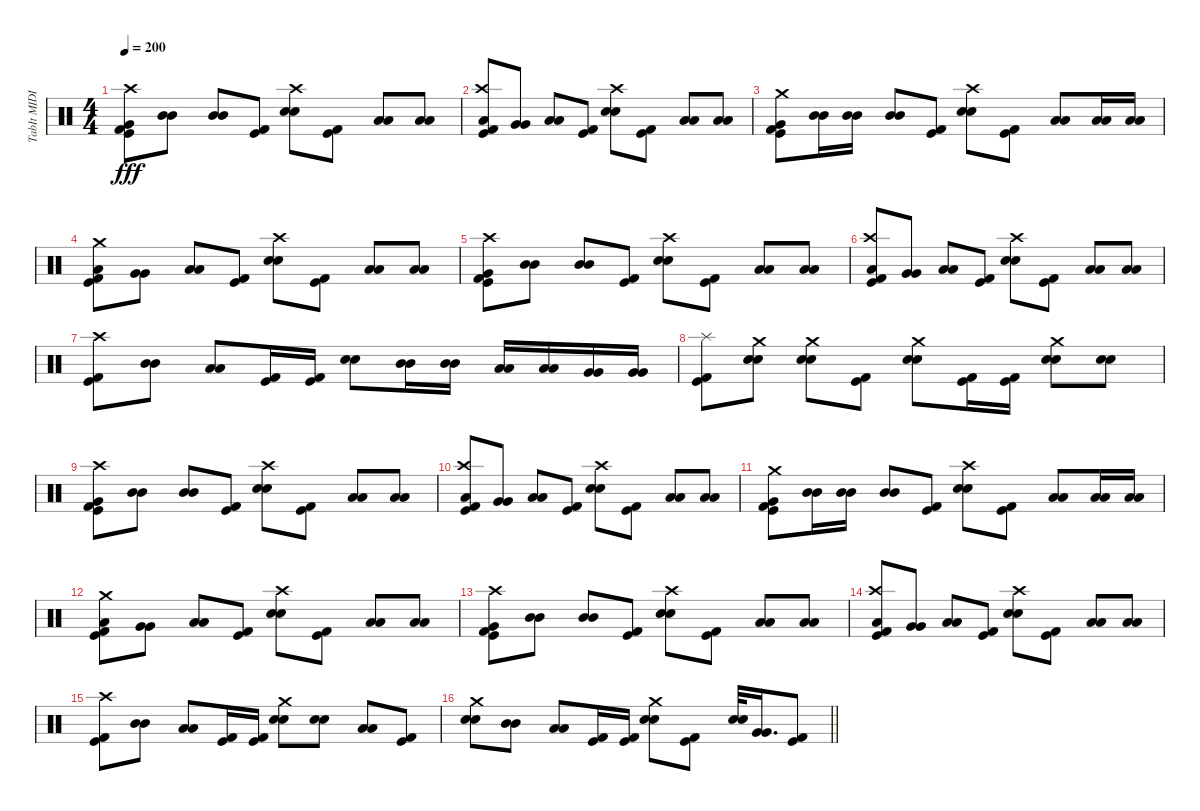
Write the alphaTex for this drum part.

\track ("TabIt MIDI - Track 4" "TabIt MIDI") {instrument percussion}
\staff {score}
\articulation defaults
\ts (4 4)
\tempo 200
\clef neutral
\ks c
("Kick (hit)" "Kick (hit) 2" "Very Low Tom (hit)" "Crash high (hit)").8{dy fff} ("Mid Tom (hit)" "Mid Tom (hit)").8 ("Mid Tom (hit)" "Mid Tom (hit)").8 ("Kick (hit)" "Kick (hit) 2").8 ("Electric Snare (hit)" "Electric Snare (hit)" "Crash high (hit)").8 ("Kick (hit)" "Kick (hit) 2").8 ("Low Tom (hit)" "Low Tom (hit)").8 ("Low Tom (hit)" "Low Tom (hit)").8 |
("Kick (hit)" "Kick (hit) 2" "Low Floor Tom (hit)" "Crash high (hit)").8 ("Very Low Tom (hit)" "Very Low Tom (hit)").8 ("Low Floor Tom (hit)" "Low Floor Tom (hit)").8 ("Kick (hit)" "Kick (hit) 2").8 ("Electric Snare (hit)" "Electric Snare (hit)" "Crash high (hit)").8 ("Kick (hit)" "Kick (hit) 2").8 ("Low Tom (hit)" "Low Tom (hit)").8 ("Low Tom (hit)" "Low Tom (hit)").8 |
("Kick (hit)" "Kick (hit) 2" "Very Low Tom (hit)" "Crash medium (hit)").8 ("Mid Tom (hit)" "Mid Tom (hit)").16 ("Mid Tom (hit)" "Mid Tom (hit)").16 ("Mid Tom (hit)" "Mid Tom (hit)").8 ("Kick (hit)" "Kick (hit) 2").8 ("Electric Snare (hit)" "Electric Snare (hit)" "Crash high (hit)").8 ("Kick (hit)" "Kick (hit) 2").8 ("Low Tom (hit)" "Low Tom (hit)").8 ("Low Tom (hit)" "Low Tom (hit)").16 ("Low Tom (hit)" "Low Tom (hit)").16 |
("Kick (hit)" "Kick (hit) 2" "Low Floor Tom (hit)" "Crash medium (hit)").8 ("Very Low Tom (hit)" "Very Low Tom (hit)").8 ("Low Floor Tom (hit)" "Low Floor Tom (hit)").8 ("Kick (hit)" "Kick (hit) 2").8 ("Electric Snare (hit)" "Electric Snare (hit)" "Crash high (hit)").8 ("Kick (hit)" "Kick (hit) 2").8 ("Low Tom (hit)" "Low Tom (hit)").8 ("Low Tom (hit)" "Low Tom (hit)").8 |
("Kick (hit)" "Kick (hit) 2" "Very Low Tom (hit)" "Crash high (hit)").8 ("Mid Tom (hit)" "Mid Tom (hit)").8 ("Mid Tom (hit)" "Mid Tom (hit)").8 ("Kick (hit)" "Kick (hit) 2").8 ("Electric Snare (hit)" "Electric Snare (hit)" "Crash high (hit)").8 ("Kick (hit)" "Kick (hit) 2").8 ("Low Tom (hit)" "Low Tom (hit)").8 ("Low Tom (hit)" "Low Tom (hit)").8 |
("Kick (hit)" "Kick (hit) 2" "Low Floor Tom (hit)" "Crash high (hit)").8 ("Very Low Tom (hit)" "Very Low Tom (hit)").8 ("Low Floor Tom (hit)" "Low Floor Tom (hit)").8 ("Kick (hit)" "Kick (hit) 2").8 ("Electric Snare (hit)" "Electric Snare (hit)" "Crash high (hit)").8 ("Kick (hit)" "Kick (hit) 2").8 ("Low Tom (hit)" "Low Tom (hit)").8 ("Low Tom (hit)" "Low Tom (hit)").8 |
("Kick (hit)" "Kick (hit) 2" "Crash high (hit)").8 ("Mid Tom (hit)" "Mid Tom (hit)").8 ("Low Tom (hit)" "Low Tom (hit)").8 ("Kick (hit)" "Kick (hit) 2").16 ("Kick (hit)" "Kick (hit) 2").16 ("Electric Snare (hit)" "Electric Snare (hit)").8 ("Mid Tom (hit)" "Mid Tom (hit)").16 ("Mid Tom (hit)" "Mid Tom (hit)").16 ("Low Tom (hit)" "Low Tom (hit)").16 ("Low Tom (hit)" "Low Tom (hit)").16 ("Very Low Tom (hit)" "Very Low Tom (hit)").16 ("Very Low Tom (hit)" "Very Low Tom (hit)").16 |
("Kick (hit)" "Kick (hit) 2" "Splash (hit)").8 ("Electric Snare (hit)" "Electric Snare (hit)" "Crash medium (hit)").8 ("Electric Snare (hit)" "Electric Snare (hit)" "Crash medium (hit)").8 ("Kick (hit)" "Kick (hit) 2").8 ("Electric Snare (hit)" "Electric Snare (hit)" "Crash medium (hit)").8 ("Kick (hit)" "Kick (hit) 2").16 ("Kick (hit)" "Kick (hit) 2").16 ("Electric Snare (hit)" "Electric Snare (hit)" "Crash medium (hit)").8 ("Electric Snare (hit)" "Electric Snare (hit)").8 |
("Kick (hit)" "Kick (hit) 2" "Very Low Tom (hit)" "Crash high (hit)").8 ("Mid Tom (hit)" "Mid Tom (hit)").8 ("Mid Tom (hit)" "Mid Tom (hit)").8 ("Kick (hit)" "Kick (hit) 2").8 ("Electric Snare (hit)" "Electric Snare (hit)" "Crash high (hit)").8 ("Kick (hit)" "Kick (hit) 2").8 ("Low Tom (hit)" "Low Tom (hit)").8 ("Low Tom (hit)" "Low Tom (hit)").8 |
("Kick (hit)" "Kick (hit) 2" "Low Floor Tom (hit)" "Crash high (hit)").8 ("Very Low Tom (hit)" "Very Low Tom (hit)").8 ("Low Floor Tom (hit)" "Low Floor Tom (hit)").8 ("Kick (hit)" "Kick (hit) 2").8 ("Electric Snare (hit)" "Electric Snare (hit)" "Crash high (hit)").8 ("Kick (hit)" "Kick (hit) 2").8 ("Low Tom (hit)" "Low Tom (hit)").8 ("Low Tom (hit)" "Low Tom (hit)").8 |
("Kick (hit)" "Kick (hit) 2" "Very Low Tom (hit)" "Crash medium (hit)").8 ("Mid Tom (hit)" "Mid Tom (hit)").16 ("Mid Tom (hit)" "Mid Tom (hit)").16 ("Mid Tom (hit)" "Mid Tom (hit)").8 ("Kick (hit)" "Kick (hit) 2").8 ("Electric Snare (hit)" "Electric Snare (hit)" "Crash high (hit)").8 ("Kick (hit)" "Kick (hit) 2").8 ("Low Tom (hit)" "Low Tom (hit)").8 ("Low Tom (hit)" "Low Tom (hit)").16 ("Low Tom (hit)" "Low Tom (hit)").16 |
("Kick (hit)" "Kick (hit) 2" "Low Floor Tom (hit)" "Crash medium (hit)").8 ("Very Low Tom (hit)" "Very Low Tom (hit)").8 ("Low Floor Tom (hit)" "Low Floor Tom (hit)").8 ("Kick (hit)" "Kick (hit) 2").8 ("Electric Snare (hit)" "Electric Snare (hit)" "Crash high (hit)").8 ("Kick (hit)" "Kick (hit) 2").8 ("Low Tom (hit)" "Low Tom (hit)").8 ("Low Tom (hit)" "Low Tom (hit)").8 |
("Kick (hit)" "Kick (hit) 2" "Very Low Tom (hit)" "Crash high (hit)").8 ("Mid Tom (hit)" "Mid Tom (hit)").8 ("Mid Tom (hit)" "Mid Tom (hit)").8 ("Kick (hit)" "Kick (hit) 2").8 ("Electric Snare (hit)" "Electric Snare (hit)" "Crash high (hit)").8 ("Kick (hit)" "Kick (hit) 2").8 ("Low Tom (hit)" "Low Tom (hit)").8 ("Low Tom (hit)" "Low Tom (hit)").8 |
("Kick (hit)" "Kick (hit) 2" "Low Floor Tom (hit)" "Crash high (hit)").8 ("Very Low Tom (hit)" "Very Low Tom (hit)").8 ("Low Floor Tom (hit)" "Low Floor Tom (hit)").8 ("Kick (hit)" "Kick (hit) 2").8 ("Electric Snare (hit)" "Electric Snare (hit)" "Crash high (hit)").8 ("Kick (hit)" "Kick (hit) 2").8 ("Low Tom (hit)" "Low Tom (hit)").8 ("Low Tom (hit)" "Low Tom (hit)").8 |
("Kick (hit)" "Kick (hit) 2" "Crash high (hit)").8 ("Mid Tom (hit)" "Mid Tom (hit)").8 ("Low Tom (hit)" "Low Tom (hit)").8 ("Kick (hit)" "Kick (hit) 2").16 ("Kick (hit)" "Kick (hit) 2").16 ("Electric Snare (hit)" "Electric Snare (hit)" "Crash medium (hit)").8 ("Electric Snare (hit)" "Electric Snare (hit)").8 ("Low Tom (hit)" "Low Tom (hit)").8 ("Kick (hit)" "Kick (hit) 2").8 |
\barLineRight lightlight
("Electric Snare (hit)" "Electric Snare (hit)" "Crash medium (hit)").8 ("Mid Tom (hit)" "Mid Tom (hit)").8 ("Low Tom (hit)" "Low Tom (hit)").8 ("Kick (hit)" "Kick (hit) 2").16 ("Kick (hit)" "Kick (hit) 2").16 ("Electric Snare (hit)" "Electric Snare (hit)" "Crash medium (hit)").8 ("Kick (hit)" "Kick (hit) 2").8 ("Electric Snare (hit)" "Electric Snare (hit)").32 ("Very Low Tom (hit)" "Very Low Tom (hit)").16{d} ("Kick (hit)" "Kick (hit) 2").8
